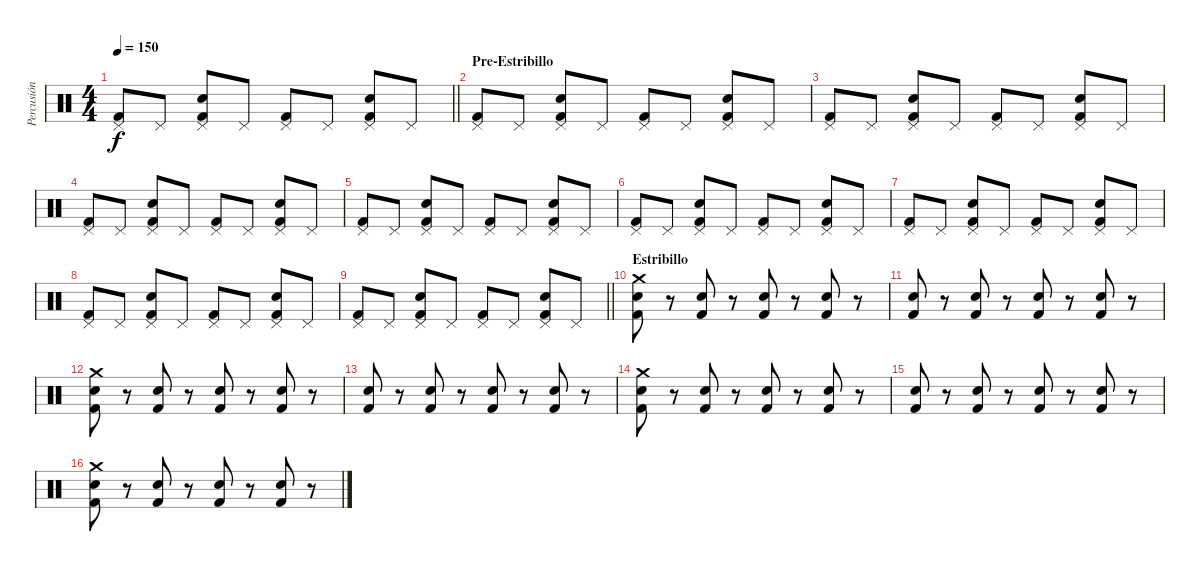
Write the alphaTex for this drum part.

\track ("Percusión" "Percusión") {instrument percussion}
\staff {score}
\articulation defaults
\ts (4 4)
\tempo 150
\clef neutral
\barLineRight lightlight
\ks c
("Pedal Hi-Hat (hit)" "Kick (hit) 2").8{dy f} "Pedal Hi-Hat (hit)".8 ("Electric Snare (hit)" "Pedal Hi-Hat (hit)" "Kick (hit) 2").8 "Pedal Hi-Hat (hit)".8 ("Pedal Hi-Hat (hit)" "Kick (hit) 2").8 "Pedal Hi-Hat (hit)".8 ("Electric Snare (hit)" "Pedal Hi-Hat (hit)" "Kick (hit) 2").8 "Pedal Hi-Hat (hit)".8 |
\section ("" "Pre-Estribillo")
("Pedal Hi-Hat (hit)" "Kick (hit) 2").8 "Pedal Hi-Hat (hit)".8 ("Electric Snare (hit)" "Pedal Hi-Hat (hit)" "Kick (hit) 2").8 "Pedal Hi-Hat (hit)".8 ("Pedal Hi-Hat (hit)" "Kick (hit) 2").8 "Pedal Hi-Hat (hit)".8 ("Electric Snare (hit)" "Pedal Hi-Hat (hit)" "Kick (hit) 2").8 "Pedal Hi-Hat (hit)".8 |
("Pedal Hi-Hat (hit)" "Kick (hit) 2").8 "Pedal Hi-Hat (hit)".8 ("Electric Snare (hit)" "Pedal Hi-Hat (hit)" "Kick (hit) 2").8 "Pedal Hi-Hat (hit)".8 ("Pedal Hi-Hat (hit)" "Kick (hit) 2").8 "Pedal Hi-Hat (hit)".8 ("Electric Snare (hit)" "Pedal Hi-Hat (hit)" "Kick (hit) 2").8 "Pedal Hi-Hat (hit)".8 |
("Pedal Hi-Hat (hit)" "Kick (hit) 2").8 "Pedal Hi-Hat (hit)".8 ("Electric Snare (hit)" "Pedal Hi-Hat (hit)" "Kick (hit) 2").8 "Pedal Hi-Hat (hit)".8 ("Pedal Hi-Hat (hit)" "Kick (hit) 2").8 "Pedal Hi-Hat (hit)".8 ("Electric Snare (hit)" "Pedal Hi-Hat (hit)" "Kick (hit) 2").8 "Pedal Hi-Hat (hit)".8 |
("Pedal Hi-Hat (hit)" "Kick (hit) 2").8 "Pedal Hi-Hat (hit)".8 ("Electric Snare (hit)" "Pedal Hi-Hat (hit)" "Kick (hit) 2").8 "Pedal Hi-Hat (hit)".8 ("Pedal Hi-Hat (hit)" "Kick (hit) 2").8 "Pedal Hi-Hat (hit)".8 ("Electric Snare (hit)" "Pedal Hi-Hat (hit)" "Kick (hit) 2").8 "Pedal Hi-Hat (hit)".8 |
("Pedal Hi-Hat (hit)" "Kick (hit) 2").8 "Pedal Hi-Hat (hit)".8 ("Electric Snare (hit)" "Pedal Hi-Hat (hit)" "Kick (hit) 2").8 "Pedal Hi-Hat (hit)".8 ("Pedal Hi-Hat (hit)" "Kick (hit) 2").8 "Pedal Hi-Hat (hit)".8 ("Electric Snare (hit)" "Pedal Hi-Hat (hit)" "Kick (hit) 2").8 "Pedal Hi-Hat (hit)".8 |
("Pedal Hi-Hat (hit)" "Kick (hit) 2").8 "Pedal Hi-Hat (hit)".8 ("Electric Snare (hit)" "Pedal Hi-Hat (hit)" "Kick (hit) 2").8 "Pedal Hi-Hat (hit)".8 ("Pedal Hi-Hat (hit)" "Kick (hit) 2").8 "Pedal Hi-Hat (hit)".8 ("Electric Snare (hit)" "Pedal Hi-Hat (hit)" "Kick (hit) 2").8 "Pedal Hi-Hat (hit)".8 |
("Pedal Hi-Hat (hit)" "Kick (hit) 2").8 "Pedal Hi-Hat (hit)".8 ("Electric Snare (hit)" "Pedal Hi-Hat (hit)" "Kick (hit) 2").8 "Pedal Hi-Hat (hit)".8 ("Pedal Hi-Hat (hit)" "Kick (hit) 2").8 "Pedal Hi-Hat (hit)".8 ("Electric Snare (hit)" "Pedal Hi-Hat (hit)" "Kick (hit) 2").8 "Pedal Hi-Hat (hit)".8 |
\barLineRight lightlight
("Pedal Hi-Hat (hit)" "Kick (hit) 2").8 "Pedal Hi-Hat (hit)".8 ("Electric Snare (hit)" "Pedal Hi-Hat (hit)" "Kick (hit) 2").8 "Pedal Hi-Hat (hit)".8 ("Pedal Hi-Hat (hit)" "Kick (hit) 2").8 "Pedal Hi-Hat (hit)".8 ("Electric Snare (hit)" "Pedal Hi-Hat (hit)" "Kick (hit) 2").8 "Pedal Hi-Hat (hit)".8 |
\section ("" "Estribillo")
("Crash medium (hit)" "Electric Snare (hit)" "Kick (hit) 2").8 r.8 ("Electric Snare (hit)" "Kick (hit) 2").8 r.8 ("Electric Snare (hit)" "Kick (hit) 2").8 r.8 ("Electric Snare (hit)" "Kick (hit) 2").8 r.8 |
("Electric Snare (hit)" "Kick (hit) 2").8 r.8 ("Electric Snare (hit)" "Kick (hit) 2").8 r.8 ("Electric Snare (hit)" "Kick (hit) 2").8 r.8 ("Electric Snare (hit)" "Kick (hit) 2").8 r.8 |
("Crash medium (hit)" "Electric Snare (hit)" "Kick (hit) 2").8 r.8 ("Electric Snare (hit)" "Kick (hit) 2").8 r.8 ("Electric Snare (hit)" "Kick (hit) 2").8 r.8 ("Electric Snare (hit)" "Kick (hit) 2").8 r.8 |
("Electric Snare (hit)" "Kick (hit) 2").8 r.8 ("Electric Snare (hit)" "Kick (hit) 2").8 r.8 ("Electric Snare (hit)" "Kick (hit) 2").8 r.8 ("Electric Snare (hit)" "Kick (hit) 2").8 r.8 |
("Crash medium (hit)" "Electric Snare (hit)" "Kick (hit) 2").8 r.8 ("Electric Snare (hit)" "Kick (hit) 2").8 r.8 ("Electric Snare (hit)" "Kick (hit) 2").8 r.8 ("Electric Snare (hit)" "Kick (hit) 2").8 r.8 |
("Electric Snare (hit)" "Kick (hit) 2").8 r.8 ("Electric Snare (hit)" "Kick (hit) 2").8 r.8 ("Electric Snare (hit)" "Kick (hit) 2").8 r.8 ("Electric Snare (hit)" "Kick (hit) 2").8 r.8 |
("Crash medium (hit)" "Electric Snare (hit)" "Kick (hit) 2").8 r.8 ("Electric Snare (hit)" "Kick (hit) 2").8 r.8 ("Electric Snare (hit)" "Kick (hit) 2").8 r.8 ("Electric Snare (hit)" "Kick (hit) 2").8 r.8
